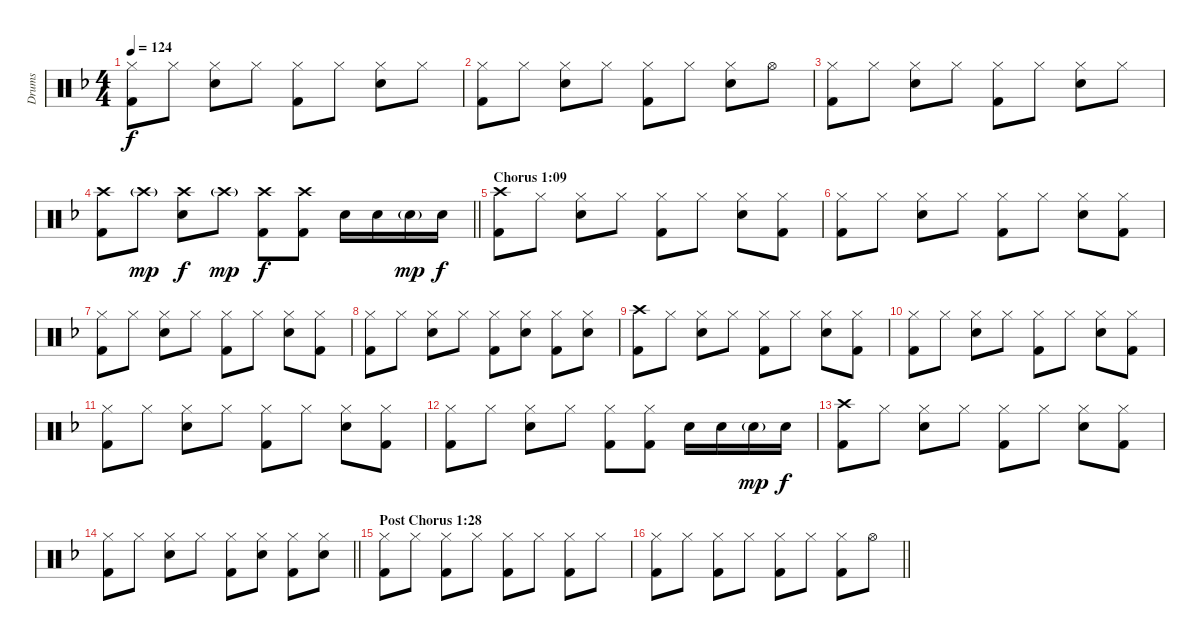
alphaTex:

\track ("Drums" "Drums") {instrument percussion}
\staff {score}
\articulation defaults
\ts (4 4)
\tempo 124
\clef neutral
\ks f
("Hi-Hat (closed)" "Kick (hit) 2").8{dy f} "Hi-Hat (closed)".8 ("Hi-Hat (closed)" "Snare (hit) 2").8 "Hi-Hat (closed)".8 ("Hi-Hat (closed)" "Kick (hit) 2").8 "Hi-Hat (closed)".8 ("Hi-Hat (closed)" "Snare (hit) 2").8 "Hi-Hat (closed)".8 |
("Hi-Hat (closed)" "Kick (hit) 2").8 "Hi-Hat (closed)".8 ("Hi-Hat (closed)" "Snare (hit) 2").8 "Hi-Hat (closed)".8 ("Hi-Hat (closed)" "Kick (hit) 2").8 "Hi-Hat (closed)".8 ("Hi-Hat (closed)" "Snare (hit) 2").8 "Hi-Hat (open)".8 |
("Hi-Hat (closed)" "Kick (hit) 2").8 "Hi-Hat (closed)".8 ("Hi-Hat (closed)" "Snare (hit) 2").8 "Hi-Hat (closed)".8 ("Hi-Hat (closed)" "Kick (hit) 2").8 "Hi-Hat (closed)".8 ("Hi-Hat (closed)" "Snare (hit) 2").8 "Hi-Hat (closed)".8 |
\barLineRight lightlight
("Crash high (hit)" "Kick (hit) 2").8 "Crash high (hit)"{g}.8{dy mp} ("Crash high (hit)" "Snare (hit) 2").8{dy f} "Crash high (hit)"{g}.8{dy mp} ("Crash high (hit)" "Kick (hit) 2").8{dy f} ("Crash high (hit)" "Kick (hit) 2").8 "Snare (hit) 2".16 "Snare (hit) 2".16 "Snare (hit) 2"{g}.16{dy mp} "Snare (hit) 2".16{dy f} |
\section ("" "Chorus 1:09")
("Crash high (hit)" "Kick (hit) 2").8 "Hi-Hat (closed)".8 ("Hi-Hat (closed)" "Snare (hit) 2").8 "Hi-Hat (closed)".8 ("Hi-Hat (closed)" "Kick (hit) 2").8 "Hi-Hat (closed)".8 ("Hi-Hat (closed)" "Snare (hit) 2").8 ("Hi-Hat (closed)" "Kick (hit) 2").8 |
("Hi-Hat (closed)" "Kick (hit) 2").8 "Hi-Hat (closed)".8 ("Hi-Hat (closed)" "Snare (hit) 2").8 "Hi-Hat (closed)".8 ("Hi-Hat (closed)" "Kick (hit) 2").8 "Hi-Hat (closed)".8 ("Hi-Hat (closed)" "Snare (hit) 2").8 ("Hi-Hat (closed)" "Kick (hit) 2").8 |
("Hi-Hat (closed)" "Kick (hit) 2").8 "Hi-Hat (closed)".8 ("Hi-Hat (closed)" "Snare (hit) 2").8 "Hi-Hat (closed)".8 ("Hi-Hat (closed)" "Kick (hit) 2").8 "Hi-Hat (closed)".8 ("Hi-Hat (closed)" "Snare (hit) 2").8 ("Hi-Hat (closed)" "Kick (hit) 2").8 |
("Hi-Hat (closed)" "Kick (hit) 2").8 "Hi-Hat (closed)".8 ("Hi-Hat (closed)" "Snare (hit) 2").8 "Hi-Hat (closed)".8 ("Hi-Hat (closed)" "Kick (hit) 2").8 ("Hi-Hat (closed)" "Snare (hit) 2").8 ("Hi-Hat (closed)" "Kick (hit) 2").8 ("Hi-Hat (closed)" "Snare (hit) 2").8 |
("Crash high (hit)" "Kick (hit) 2").8 "Hi-Hat (closed)".8 ("Hi-Hat (closed)" "Snare (hit) 2").8 "Hi-Hat (closed)".8 ("Hi-Hat (closed)" "Kick (hit) 2").8 "Hi-Hat (closed)".8 ("Hi-Hat (closed)" "Snare (hit) 2").8 ("Hi-Hat (closed)" "Kick (hit) 2").8 |
("Hi-Hat (closed)" "Kick (hit) 2").8 "Hi-Hat (closed)".8 ("Hi-Hat (closed)" "Snare (hit) 2").8 "Hi-Hat (closed)".8 ("Hi-Hat (closed)" "Kick (hit) 2").8 "Hi-Hat (closed)".8 ("Hi-Hat (closed)" "Snare (hit) 2").8 ("Hi-Hat (closed)" "Kick (hit) 2").8 |
("Hi-Hat (closed)" "Kick (hit) 2").8 "Hi-Hat (closed)".8 ("Hi-Hat (closed)" "Snare (hit) 2").8 "Hi-Hat (closed)".8 ("Hi-Hat (closed)" "Kick (hit) 2").8 "Hi-Hat (closed)".8 ("Hi-Hat (closed)" "Snare (hit) 2").8 ("Hi-Hat (closed)" "Kick (hit) 2").8 |
("Hi-Hat (closed)" "Kick (hit) 2").8 "Hi-Hat (closed)".8 ("Hi-Hat (closed)" "Snare (hit) 2").8 "Hi-Hat (closed)".8 ("Hi-Hat (closed)" "Kick (hit) 2").8 ("Hi-Hat (closed)" "Kick (hit) 2").8 "Snare (hit) 2".16 "Snare (hit) 2".16 "Snare (hit) 2"{g}.16{dy mp} "Snare (hit) 2".16{dy f} |
("Crash high (hit)" "Kick (hit) 2").8 "Hi-Hat (closed)".8 ("Hi-Hat (closed)" "Snare (hit) 2").8 "Hi-Hat (closed)".8 ("Hi-Hat (closed)" "Kick (hit) 2").8 "Hi-Hat (closed)".8 ("Hi-Hat (closed)" "Snare (hit) 2").8 ("Hi-Hat (closed)" "Kick (hit) 2").8 |
\barLineRight lightlight
("Hi-Hat (closed)" "Kick (hit) 2").8 "Hi-Hat (closed)".8 ("Hi-Hat (closed)" "Snare (hit) 2").8 "Hi-Hat (closed)".8 ("Hi-Hat (closed)" "Kick (hit) 2").8 ("Hi-Hat (closed)" "Snare (hit) 2").8 ("Hi-Hat (closed)" "Kick (hit) 2").8 ("Hi-Hat (closed)" "Snare (hit) 2").8 |
\section ("" "Post Chorus 1:28")
("Hi-Hat (closed)" "Kick (hit) 2").8 "Hi-Hat (closed)".8 ("Hi-Hat (closed)" "Kick (hit) 2").8 "Hi-Hat (closed)".8 ("Hi-Hat (closed)" "Kick (hit) 2").8 "Hi-Hat (closed)".8 ("Hi-Hat (closed)" "Kick (hit) 2").8 "Hi-Hat (closed)".8 |
\barLineRight lightlight
("Hi-Hat (closed)" "Kick (hit) 2").8 "Hi-Hat (closed)".8 ("Hi-Hat (closed)" "Kick (hit) 2").8 "Hi-Hat (closed)".8 ("Hi-Hat (closed)" "Kick (hit) 2").8 "Hi-Hat (closed)".8 ("Hi-Hat (closed)" "Kick (hit) 2").8 "Hi-Hat (open)".8
